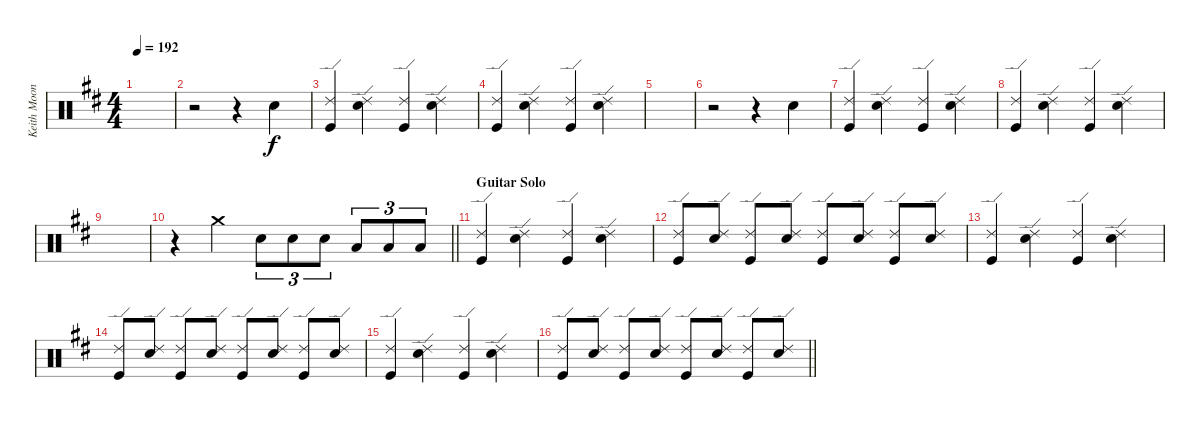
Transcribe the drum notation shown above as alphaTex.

\track ("Keith Moon - Drums" "Keith Moon") {instrument percussion}
\staff {score}
\articulation defaults
\ts (4 4)
\tempo 192
\clef neutral
\ks d
|
r.2 r.4 "Electric Snare (hit)".4 |
("Ride (edge) 2" "Kick (hit)").4 ("Ride (edge) 2" "Electric Snare (hit)").4 ("Ride (edge) 2" "Kick (hit)").4 ("Ride (edge) 2" "Electric Snare (hit)").4 |
("Ride (edge) 2" "Kick (hit)").4 ("Ride (edge) 2" "Electric Snare (hit)").4 ("Ride (edge) 2" "Kick (hit)").4 ("Ride (edge) 2" "Electric Snare (hit)").4 |
|
r.2 r.4 "Electric Snare (hit)".4 |
("Ride (edge) 2" "Kick (hit)").4 ("Ride (edge) 2" "Electric Snare (hit)").4 ("Ride (edge) 2" "Kick (hit)").4 ("Ride (edge) 2" "Electric Snare (hit)").4 |
("Ride (edge) 2" "Kick (hit)").4 ("Ride (edge) 2" "Electric Snare (hit)").4 ("Ride (edge) 2" "Kick (hit)").4 ("Ride (edge) 2" "Electric Snare (hit)").4 |
|
\barLineRight lightlight
r.4 "Crash medium (hit)".4 "Electric Snare (hit)".8{tu (3 2)} "Electric Snare (hit)".8{tu (3 2)} "Electric Snare (hit)".8{tu (3 2)} "Low Floor Tom (hit)".8{tu (3 2)} "Low Floor Tom (hit)".8{tu (3 2)} "Low Floor Tom (hit)".8{tu (3 2)} |
\section ("" "Guitar Solo")
("Ride (edge) 2" "Kick (hit)").4 ("Ride (edge) 2" "Electric Snare (hit)").4 ("Ride (edge) 2" "Kick (hit)").4 ("Ride (edge) 2" "Electric Snare (hit)").4 |
("Ride (edge) 2" "Kick (hit)").8 ("Ride (edge) 2" "Electric Snare (hit)").8 ("Ride (edge) 2" "Kick (hit)").8 ("Ride (edge) 2" "Electric Snare (hit)").8 ("Ride (edge) 2" "Kick (hit)").8 ("Ride (edge) 2" "Electric Snare (hit)").8 ("Ride (edge) 2" "Kick (hit)").8 ("Ride (edge) 2" "Electric Snare (hit)").8 |
("Ride (edge) 2" "Kick (hit)").4 ("Ride (edge) 2" "Electric Snare (hit)").4 ("Ride (edge) 2" "Kick (hit)").4 ("Ride (edge) 2" "Electric Snare (hit)").4 |
("Ride (edge) 2" "Kick (hit)").8 ("Ride (edge) 2" "Electric Snare (hit)").8 ("Ride (edge) 2" "Kick (hit)").8 ("Ride (edge) 2" "Electric Snare (hit)").8 ("Ride (edge) 2" "Kick (hit)").8 ("Ride (edge) 2" "Electric Snare (hit)").8 ("Ride (edge) 2" "Kick (hit)").8 ("Ride (edge) 2" "Electric Snare (hit)").8 |
("Ride (edge) 2" "Kick (hit)").4 ("Ride (edge) 2" "Electric Snare (hit)").4 ("Ride (edge) 2" "Kick (hit)").4 ("Ride (edge) 2" "Electric Snare (hit)").4 |
\barLineRight lightlight
("Ride (edge) 2" "Kick (hit)").8 ("Ride (edge) 2" "Electric Snare (hit)").8 ("Ride (edge) 2" "Kick (hit)").8 ("Ride (edge) 2" "Electric Snare (hit)").8 ("Ride (edge) 2" "Kick (hit)").8 ("Ride (edge) 2" "Electric Snare (hit)").8 ("Ride (edge) 2" "Kick (hit)").8 ("Ride (edge) 2" "Electric Snare (hit)").8
